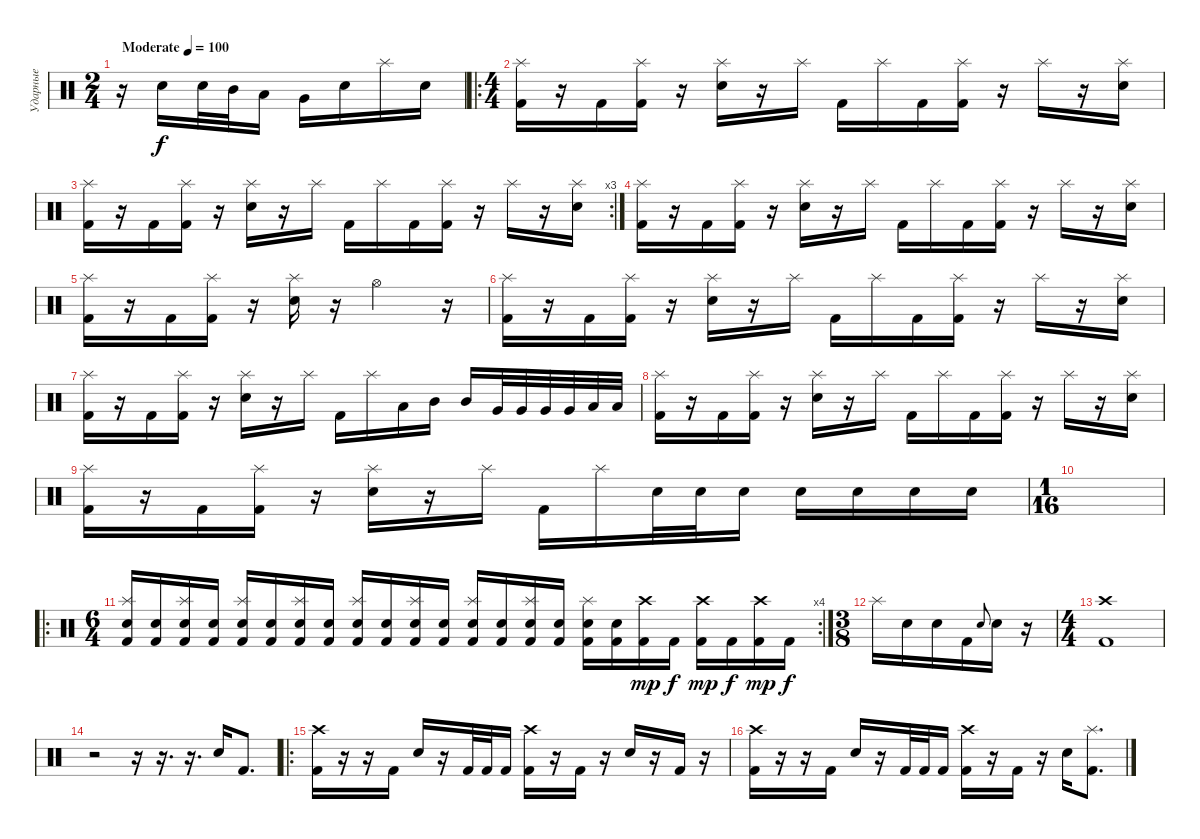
\track ("Ударные" "Ударные") {instrument percussion}
\staff {score}
\articulation defaults
\ts (2 4)
\tempo (100 "Moderate")
\clef neutral
\ks c
r.16{dy f} "Electric Snare (hit)".16 "Electric Snare (hit)".32 "Mid Tom (hit)".32 "Low Tom (hit)".16 "Very Low Tom (hit)".16 "Electric Snare (hit)".16 "Splash (hit)".16 "Electric Snare (hit)".16 |
\ro
\ts (4 4)
("Kick (hit) 2" "Splash (hit)").16 r.16 "Kick (hit) 2".16 ("Kick (hit) 2" "Splash (hit)").16 r.16 ("Electric Snare (hit)" "Splash (hit)").16 r.16 "Splash (hit)".16 "Kick (hit) 2".16 "Splash (hit)".16 "Kick (hit) 2".16 ("Kick (hit) 2" "Splash (hit)").16 r.16 "Splash (hit)".16 r.16 ("Electric Snare (hit)" "Splash (hit)").16 |
\rc 3
("Kick (hit) 2" "Splash (hit)").16 r.16 "Kick (hit) 2".16 ("Kick (hit) 2" "Splash (hit)").16 r.16 ("Electric Snare (hit)" "Splash (hit)").16 r.16 "Splash (hit)".16 "Kick (hit) 2".16 "Splash (hit)".16 "Kick (hit) 2".16 ("Kick (hit) 2" "Splash (hit)").16 r.16 "Splash (hit)".16 r.16 ("Electric Snare (hit)" "Splash (hit)").16 |
("Kick (hit) 2" "Splash (hit)").16 r.16 "Kick (hit) 2".16 ("Kick (hit) 2" "Splash (hit)").16 r.16 ("Electric Snare (hit)" "Splash (hit)").16 r.16 "Splash (hit)".16 "Kick (hit) 2".16 "Splash (hit)".16 "Kick (hit) 2".16 ("Kick (hit) 2" "Splash (hit)").16 r.16 "Splash (hit)".16 r.16 ("Electric Snare (hit)" "Splash (hit)").16 |
("Kick (hit) 2" "Splash (hit)").16 r.16 "Kick (hit) 2".16 ("Kick (hit) 2" "Splash (hit)").16 r.16 ("Electric Snare (hit)" "Splash (hit)").16 r.16 "Hi-Hat (open)".2 r.16 |
("Kick (hit) 2" "Splash (hit)").16 r.16 "Kick (hit) 2".16 ("Kick (hit) 2" "Splash (hit)").16 r.16 ("Electric Snare (hit)" "Splash (hit)").16 r.16 "Splash (hit)".16 "Kick (hit) 2".16 "Splash (hit)".16 "Kick (hit) 2".16 ("Kick (hit) 2" "Splash (hit)").16 r.16 "Splash (hit)".16 r.16 ("Electric Snare (hit)" "Splash (hit)").16 |
("Kick (hit) 2" "Splash (hit)").16 r.16 "Kick (hit) 2".16 ("Kick (hit) 2" "Splash (hit)").16 r.16 ("Electric Snare (hit)" "Splash (hit)").16 r.16 "Splash (hit)".16 "Kick (hit) 2".16 "Splash (hit)".16 "Low Tom (hit)".16 "Mid Tom (hit)".16 "Mid Tom (hit)".16 "Very Low Tom (hit)".32 "Very Low Tom (hit)".32 "Very Low Tom (hit)".32 "Very Low Tom (hit)".32 "Low Floor Tom (hit)".32 "Low Floor Tom (hit)".32 |
("Kick (hit) 2" "Splash (hit)").16 r.16 "Kick (hit) 2".16 ("Kick (hit) 2" "Splash (hit)").16 r.16 ("Electric Snare (hit)" "Splash (hit)").16 r.16 "Splash (hit)".16 "Kick (hit) 2".16 "Splash (hit)".16 "Kick (hit) 2".16 ("Kick (hit) 2" "Splash (hit)").16 r.16 "Splash (hit)".16 r.16 ("Electric Snare (hit)" "Splash (hit)").16 |
("Kick (hit) 2" "Splash (hit)").16 r.16 "Kick (hit) 2".16 ("Kick (hit) 2" "Splash (hit)").16 r.16 ("Electric Snare (hit)" "Splash (hit)").16 r.16 "Splash (hit)".16 "Kick (hit) 2".16 "Splash (hit)".16 "Electric Snare (hit)".32 "Electric Snare (hit)".32 "Electric Snare (hit)".16 "Electric Snare (hit)".16 "Electric Snare (hit)".16 "Electric Snare (hit)".16 "Electric Snare (hit)".16 |
\ts (1 16)
|
\ro
\rc 4
\ts (6 4)
("Kick (hit) 2" "Splash (hit)" "Electric Snare (hit)").16 ("Kick (hit) 2" "Electric Snare (hit)").16 ("Kick (hit) 2" "Splash (hit)" "Electric Snare (hit)").16 ("Kick (hit) 2" "Electric Snare (hit)").16 ("Kick (hit) 2" "Splash (hit)" "Electric Snare (hit)").16 ("Kick (hit) 2" "Electric Snare (hit)").16 ("Splash (hit)" "Kick (hit) 2" "Electric Snare (hit)").16 ("Kick (hit) 2" "Electric Snare (hit)").16 ("Kick (hit) 2" "Splash (hit)" "Electric Snare (hit)").16 ("Kick (hit) 2" "Electric Snare (hit)").16 ("Kick (hit) 2" "Splash (hit)" "Electric Snare (hit)").16 ("Kick (hit) 2" "Electric Snare (hit)").16 ("Kick (hit) 2" "Splash (hit)" "Electric Snare (hit)").16 ("Kick (hit) 2" "Electric Snare (hit)").16 ("Kick (hit) 2" "Splash (hit)" "Electric Snare (hit)").16 ("Kick (hit) 2" "Electric Snare (hit)").16 ("Kick (hit) 2" "Splash (hit)" "Electric Snare (hit)").16 ("Kick (hit) 2" "Electric Snare (hit)").16 ("Kick (hit) 2" "Crash high (hit)").16{dy mp} "Kick (hit) 2".16{dy f} ("Kick (hit) 2" "Crash high (hit)").16{dy mp} "Kick (hit) 2".16{dy f} ("Kick (hit) 2" "Crash high (hit)").16{dy mp} "Kick (hit) 2".16{dy f} |
\ts (3 8)
"Splash (hit)".16 "Electric Snare (hit)".16 "Electric Snare (hit)".16 "Kick (hit) 2".16 "Electric Snare (hit)".8{gr onbeat} "Electric Snare (hit)".16 r.16 |
\ts (4 4)
("Kick (hit) 2" "Crash high (hit)").1 |
r.2 r.16 r.16{d} r.16{d} "Electric Snare (hit)".16 "Kick (hit) 2".8{d} |
\ro
("Kick (hit) 2" "Crash high (hit)").16 r.16 r.16 "Kick (hit) 2".16 "Electric Snare (hit)".16 r.16 "Kick (hit) 2".32 "Kick (hit) 2".32 "Kick (hit) 2".16 ("Kick (hit) 2" "Crash high (hit)").16 r.16 "Kick (hit) 2".16 r.16 "Electric Snare (hit)".16 r.16 "Kick (hit) 2".16 r.16 |
("Kick (hit) 2" "Crash high (hit)").16 r.16 r.16 "Kick (hit) 2".16 "Electric Snare (hit)".16 r.16 "Kick (hit) 2".32 "Kick (hit) 2".32 "Kick (hit) 2".16 ("Kick (hit) 2" "Crash high (hit)").16 r.16 "Kick (hit) 2".16 r.16 "Electric Snare (hit)".16 ("Kick (hit) 2" "Splash (hit)").8{d}
